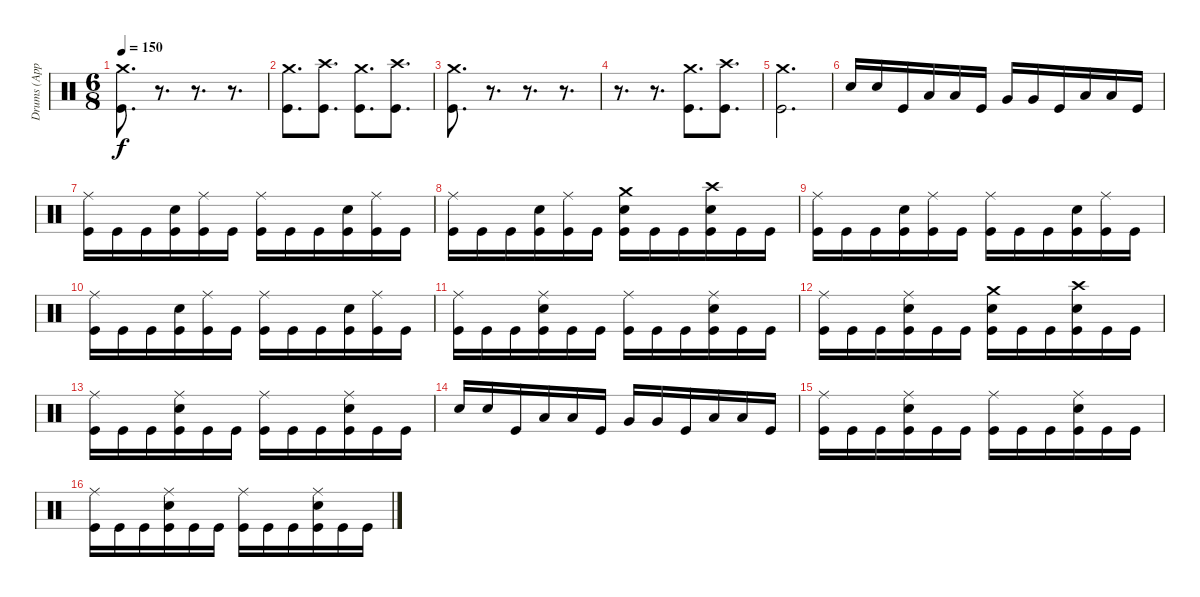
\track ("Drums (Appelhans/Durst)" "Drums (App") {instrument percussion}
\staff {score}
\articulation defaults
\ts (6 8)
\tempo 150
\clef neutral
\ks c
("Crash medium (hit)" "Kick (hit)").8{d dy f} r.8{d} r.8{d} r.8{d} |
("Kick (hit)" "Crash medium (hit)").8{d} ("Kick (hit)" "Crash high (hit)").8{d} ("Kick (hit)" "Crash medium (hit)").8{d} ("Kick (hit)" "Crash high (hit)").8{d} |
("Crash medium (hit)" "Kick (hit)").8{d} r.8{d} r.8{d} r.8{d} |
r.8{d} r.8{d} ("Kick (hit)" "Crash medium (hit)").8{d} ("Kick (hit)" "Crash high (hit)").8{d} |
("Kick (hit)" "Crash medium (hit)").2{d} |
"Snare (hit) 2".16 "Snare (hit) 2".16 "Kick (hit)".16 "Low Tom (hit)".16 "Low Tom (hit)".16 "Kick (hit)".16 "Very Low Tom (hit)".16 "Very Low Tom (hit)".16 "Kick (hit)".16 "Low Floor Tom (hit)".16 "Low Floor Tom (hit)".16 "Kick (hit)".16 |
("Kick (hit)" "Ride (middle)").16 "Kick (hit)".16 "Kick (hit)".16 ("Kick (hit)" "Snare (hit) 2").16 ("Kick (hit)" "Ride (middle)").16 "Kick (hit)".16 ("Kick (hit)" "Ride (middle)").16 "Kick (hit)".16 "Kick (hit)".16 ("Kick (hit)" "Snare (hit) 2").16 ("Kick (hit)" "Ride (middle)").16 "Kick (hit)".16 |
("Kick (hit)" "Ride (middle)").16 "Kick (hit)".16 "Kick (hit)".16 ("Kick (hit)" "Snare (hit) 2").16 ("Kick (hit)" "Ride (middle)").16 "Kick (hit)".16 ("Kick (hit)" "Snare (hit) 2" "Crash medium (hit)").16 "Kick (hit)".16 "Kick (hit)".16 ("Kick (hit)" "Snare (hit) 2" "Crash high (hit)").16 "Kick (hit)".16 "Kick (hit)".16 |
("Kick (hit)" "Ride (middle)").16 "Kick (hit)".16 "Kick (hit)".16 ("Kick (hit)" "Snare (hit) 2").16 ("Kick (hit)" "Ride (middle)").16 "Kick (hit)".16 ("Kick (hit)" "Ride (middle)").16 "Kick (hit)".16 "Kick (hit)".16 ("Kick (hit)" "Snare (hit) 2").16 ("Kick (hit)" "Ride (middle)").16 "Kick (hit)".16 |
("Kick (hit)" "Ride (middle)").16 "Kick (hit)".16 "Kick (hit)".16 ("Kick (hit)" "Snare (hit) 2").16 ("Kick (hit)" "Ride (middle)").16 "Kick (hit)".16 ("Kick (hit)" "Ride (middle)").16 "Kick (hit)".16 "Kick (hit)".16 ("Kick (hit)" "Snare (hit) 2").16 ("Kick (hit)" "Ride (middle)").16 "Kick (hit)".16 |
("Kick (hit)" "Ride (middle)").16 "Kick (hit)".16 "Kick (hit)".16 ("Kick (hit)" "Ride (middle)" "Snare (hit) 2").16 "Kick (hit)".16 "Kick (hit)".16 ("Kick (hit)" "Ride (middle)").16 "Kick (hit)".16 "Kick (hit)".16 ("Kick (hit)" "Ride (middle)" "Snare (hit) 2").16 "Kick (hit)".16 "Kick (hit)".16 |
("Kick (hit)" "Ride (middle)").16 "Kick (hit)".16 "Kick (hit)".16 ("Kick (hit)" "Ride (middle)" "Snare (hit) 2").16 "Kick (hit)".16 "Kick (hit)".16 ("Kick (hit)" "Snare (hit) 2" "Crash medium (hit)").16 "Kick (hit)".16 "Kick (hit)".16 ("Kick (hit)" "Snare (hit) 2" "Crash high (hit)").16 "Kick (hit)".16 "Kick (hit)".16 |
("Kick (hit)" "Ride (middle)").16 "Kick (hit)".16 "Kick (hit)".16 ("Kick (hit)" "Ride (middle)" "Snare (hit) 2").16 "Kick (hit)".16 "Kick (hit)".16 ("Kick (hit)" "Ride (middle)").16 "Kick (hit)".16 "Kick (hit)".16 ("Kick (hit)" "Ride (middle)" "Snare (hit) 2").16 "Kick (hit)".16 "Kick (hit)".16 |
"Snare (hit) 2".16 "Snare (hit) 2".16 "Kick (hit)".16 "Low Tom (hit)".16 "Low Tom (hit)".16 "Kick (hit)".16 "Very Low Tom (hit)".16 "Very Low Tom (hit)".16 "Kick (hit)".16 "Low Floor Tom (hit)".16 "Low Floor Tom (hit)".16 "Kick (hit)".16 |
("Kick (hit)" "Ride (middle)").16 "Kick (hit)".16 "Kick (hit)".16 ("Kick (hit)" "Ride (middle)" "Snare (hit) 2").16 "Kick (hit)".16 "Kick (hit)".16 ("Kick (hit)" "Ride (middle)").16 "Kick (hit)".16 "Kick (hit)".16 ("Kick (hit)" "Ride (middle)" "Snare (hit) 2").16 "Kick (hit)".16 "Kick (hit)".16 |
("Kick (hit)" "Ride (middle)").16 "Kick (hit)".16 "Kick (hit)".16 ("Kick (hit)" "Ride (middle)" "Snare (hit) 2").16 "Kick (hit)".16 "Kick (hit)".16 ("Kick (hit)" "Ride (middle)").16 "Kick (hit)".16 "Kick (hit)".16 ("Kick (hit)" "Snare (hit) 2" "Ride (middle)").16 "Kick (hit)".16 "Kick (hit)".16
